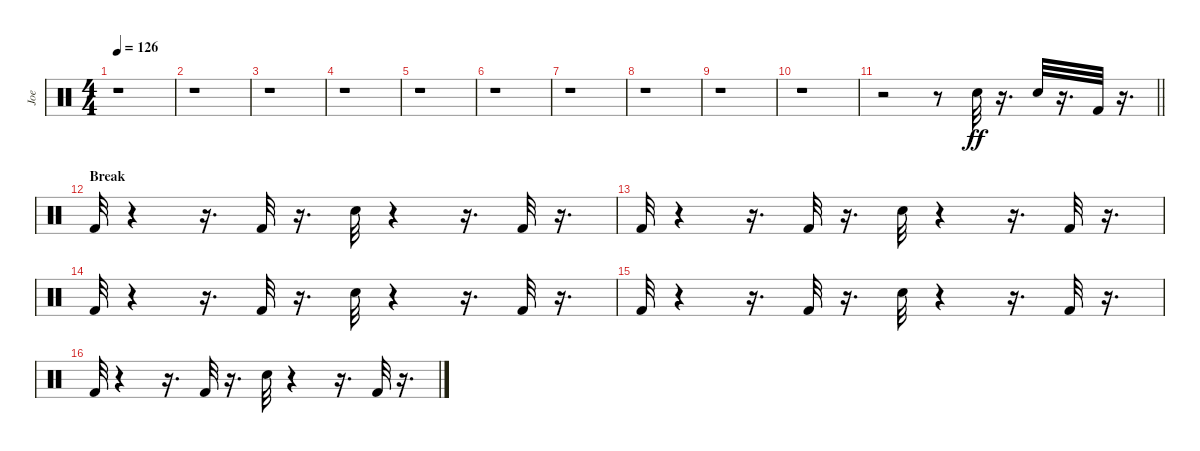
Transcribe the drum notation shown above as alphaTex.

\track ("Joe" "Joe") {instrument percussion}
\staff {score}
\articulation defaults
\ts (4 4)
\tempo 126
\clef neutral
\ks c
r.1{dy ff} |
r.1 |
r.1 |
r.1 |
r.1 |
r.1 |
r.1 |
r.1 |
r.1 |
r.1 |
\barLineRight lightlight
r.2 r.8 "Electric Snare (hit)".32 r.16{d} "Electric Snare (hit)".32 r.16{d} "Kick (hit) 2".32 r.16{d} |
\section ("" "Break")
"Kick (hit) 2".32 r.4 r.16{d} "Kick (hit) 2".32 r.16{d} "Electric Snare (hit)".32 r.4 r.16{d} "Kick (hit) 2".32 r.16{d} |
"Kick (hit) 2".32 r.4 r.16{d} "Kick (hit) 2".32 r.16{d} "Electric Snare (hit)".32 r.4 r.16{d} "Kick (hit) 2".32 r.16{d} |
"Kick (hit) 2".32 r.4 r.16{d} "Kick (hit) 2".32 r.16{d} "Electric Snare (hit)".32 r.4 r.16{d} "Kick (hit) 2".32 r.16{d} |
"Kick (hit) 2".32 r.4 r.16{d} "Kick (hit) 2".32 r.16{d} "Electric Snare (hit)".32 r.4 r.16{d} "Kick (hit) 2".32 r.16{d} |
"Kick (hit) 2".32 r.4 r.16{d} "Kick (hit) 2".32 r.16{d} "Electric Snare (hit)".32 r.4 r.16{d} "Kick (hit) 2".32 r.16{d}
